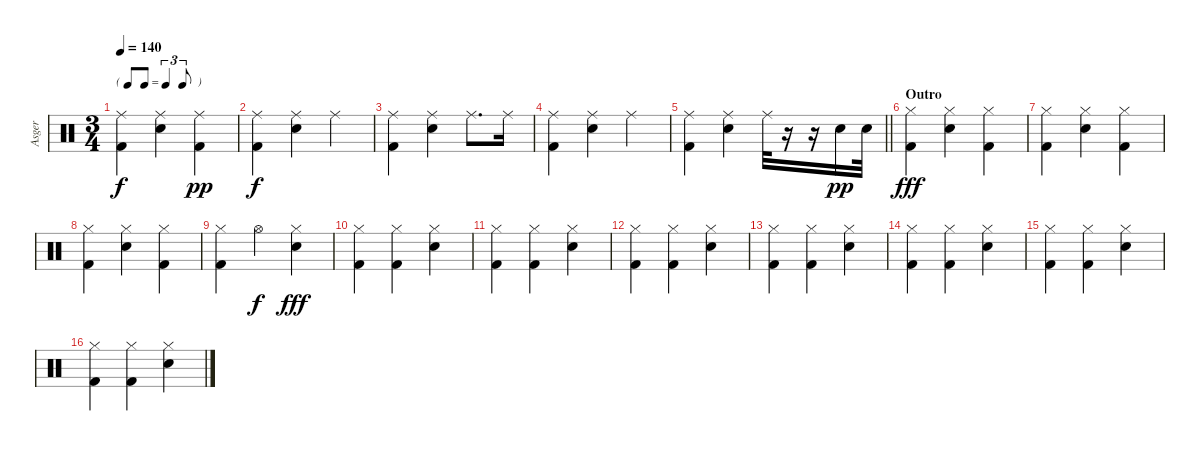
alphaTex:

\track ("Asger " "Asger ") {instrument percussion}
\staff {score}
\articulation defaults
\ts (3 4)
\tf triplet8th
\tempo 140
\clef neutral
\ks c
("Ride (middle)" "Kick (hit) 2").4{dy f} ("Ride (middle)" "Snare (hit) 2").4 ("Ride (middle)" "Kick (hit) 2").4{dy pp} |
("Ride (middle)" "Kick (hit) 2").4{dy f} ("Ride (middle)" "Snare (hit) 2").4 "Ride (middle)".4 |
("Ride (middle)" "Kick (hit) 2").4 ("Ride (middle)" "Snare (hit) 2").4 "Ride (middle)".8{d} "Ride (middle)".16 |
("Ride (middle)" "Kick (hit) 2").4 ("Ride (middle)" "Snare (hit) 2").4 "Ride (middle)".4 |
\barLineRight lightlight
("Ride (middle)" "Kick (hit) 2").4 ("Ride (middle)" "Snare (hit) 2").4 "Ride (middle)".32 r.16 r.16 "Snare (hit) 2".16{dy pp} "Snare (hit) 2".32 |
\section ("" "Outro")
("Hi-Hat (closed)" "Kick (hit) 2").4{dy fff} ("Hi-Hat (closed)" "Snare (hit) 2").4 ("Hi-Hat (closed)" "Kick (hit) 2").4 |
("Hi-Hat (closed)" "Kick (hit) 2").4 ("Hi-Hat (closed)" "Snare (hit) 2").4 ("Hi-Hat (closed)" "Kick (hit) 2").4 |
("Hi-Hat (closed)" "Kick (hit) 2").4 ("Hi-Hat (closed)" "Snare (hit) 2").4 ("Hi-Hat (closed)" "Kick (hit) 2").4 |
("Hi-Hat (closed)" "Kick (hit) 2").4 "Hi-Hat (open)".4{dy f} ("Hi-Hat (closed)" "Snare (hit) 2").4{dy fff} |
("Hi-Hat (closed)" "Kick (hit) 2").4 ("Hi-Hat (closed)" "Kick (hit) 2").4 ("Hi-Hat (closed)" "Snare (hit) 2").4 |
("Hi-Hat (closed)" "Kick (hit) 2").4 ("Hi-Hat (closed)" "Kick (hit) 2").4 ("Hi-Hat (closed)" "Snare (hit) 2").4 |
("Hi-Hat (closed)" "Kick (hit) 2").4 ("Hi-Hat (closed)" "Kick (hit) 2").4 ("Hi-Hat (closed)" "Snare (hit) 2").4 |
("Hi-Hat (closed)" "Kick (hit) 2").4 ("Hi-Hat (closed)" "Kick (hit) 2").4 ("Hi-Hat (closed)" "Snare (hit) 2").4 |
("Hi-Hat (closed)" "Kick (hit) 2").4 ("Hi-Hat (closed)" "Kick (hit) 2").4 ("Hi-Hat (closed)" "Snare (hit) 2").4 |
("Hi-Hat (closed)" "Kick (hit) 2").4 ("Hi-Hat (closed)" "Kick (hit) 2").4 ("Hi-Hat (closed)" "Snare (hit) 2").4 |
("Hi-Hat (closed)" "Kick (hit) 2").4 ("Hi-Hat (closed)" "Kick (hit) 2").4 ("Hi-Hat (closed)" "Snare (hit) 2").4
